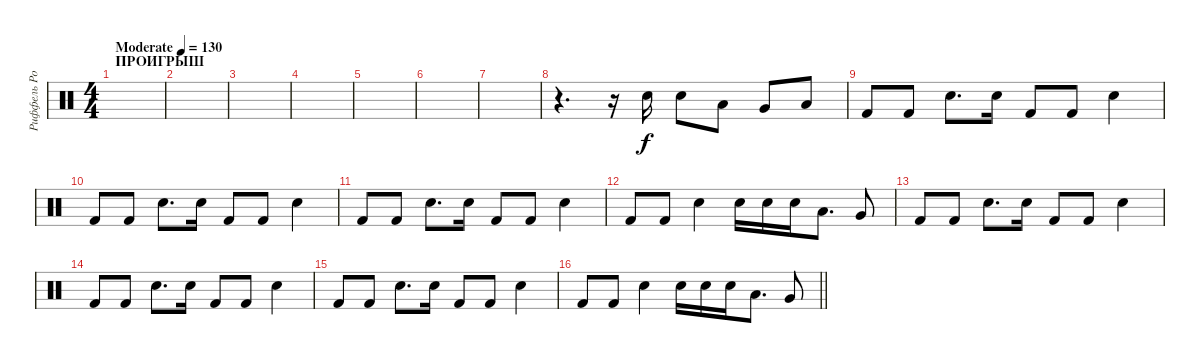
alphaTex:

\track ("Риффель Роман(Главные)" "Риффель Ро") {instrument percussion}
\staff {score}
\articulation defaults
\ts (4 4)
\section ("" "ПРОИГРЫШ")
\tempo (130 "Moderate")
\clef neutral
\ks c
|
|
|
|
|
|
|
r.4{d} r.16 "Electric Snare (hit)".16 "Electric Snare (hit)".8 "Low Tom (hit)".8 "Very Low Tom (hit)".8 "Low Floor Tom (hit)".8 |
"Kick (hit) 2".8 "Kick (hit) 2".8 "Electric Snare (hit)".8{d} "Electric Snare (hit)".16 "Kick (hit) 2".8 "Kick (hit) 2".8 "Electric Snare (hit)".4 |
"Kick (hit) 2".8 "Kick (hit) 2".8 "Electric Snare (hit)".8{d} "Electric Snare (hit)".16 "Kick (hit) 2".8 "Kick (hit) 2".8 "Electric Snare (hit)".4 |
"Kick (hit) 2".8 "Kick (hit) 2".8 "Electric Snare (hit)".8{d} "Electric Snare (hit)".16 "Kick (hit) 2".8 "Kick (hit) 2".8 "Electric Snare (hit)".4 |
"Kick (hit) 2".8 "Kick (hit) 2".8 "Electric Snare (hit)".4 "Electric Snare (hit)".16 "Electric Snare (hit)".16 "Electric Snare (hit)".16 "Low Tom (hit)".8{d} "Very Low Tom (hit)".8 |
"Kick (hit) 2".8 "Kick (hit) 2".8 "Electric Snare (hit)".8{d} "Electric Snare (hit)".16 "Kick (hit) 2".8 "Kick (hit) 2".8 "Electric Snare (hit)".4 |
"Kick (hit) 2".8 "Kick (hit) 2".8 "Electric Snare (hit)".8{d} "Electric Snare (hit)".16 "Kick (hit) 2".8 "Kick (hit) 2".8 "Electric Snare (hit)".4 |
"Kick (hit) 2".8 "Kick (hit) 2".8 "Electric Snare (hit)".8{d} "Electric Snare (hit)".16 "Kick (hit) 2".8 "Kick (hit) 2".8 "Electric Snare (hit)".4 |
\barLineRight lightlight "Kick (hit) 2".8 "Kick (hit) 2".8 "Electric Snare (hit)".4 "Electric Snare (hit)".16 "Electric Snare (hit)".16 "Electric Snare (hit)".16 "Low Tom (hit)".8{d} "Very Low Tom (hit)".8
